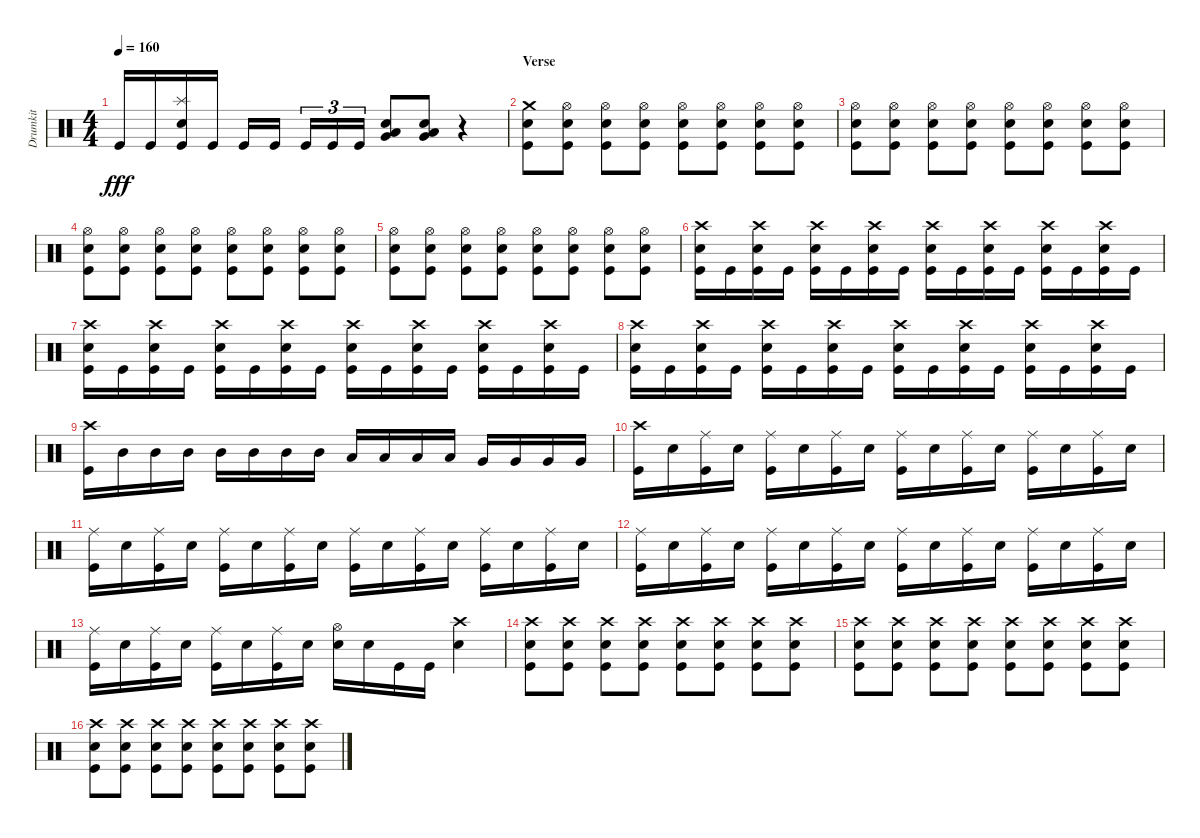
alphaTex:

\track ("Drumkit" "Drumkit") {instrument percussion}
\staff {score}
\articulation defaults
\ts (4 4)
\tempo 160
\clef neutral
\ks c "Kick (hit)".16{dy fff} "Kick (hit)".16
("Kick (hit)" "Splash (hit)" "Snare (hit) 2").16 "Kick (hit)".16 "Kick (hit)".16 "Kick (hit)".16 "Kick (hit)".16{tu (3 2)} "Kick (hit)".16{tu (3 2)} "Kick (hit)".16{tu (3 2)} ("Snare (hit) 2" "Low Floor Tom (hit)" "Very Low Tom (hit)").8 ("Snare (hit) 2" "Very Low Tom (hit)" "Low Floor Tom (hit)").8 r.4 |
\section ("" "Verse")
("Kick (hit)" "Crash medium (hit)" "Snare (hit) 2").8 ("Kick (hit)" "Snare (hit) 2" "Hi-Hat (open)").8 ("Kick (hit)" "Hi-Hat (open)" "Snare (hit) 2").8 ("Kick (hit)" "Snare (hit) 2" "Hi-Hat (open)").8 ("Kick (hit)" "Hi-Hat (open)" "Snare (hit) 2").8 ("Kick (hit)" "Snare (hit) 2" "Hi-Hat (open)").8 ("Kick (hit)" "Hi-Hat (open)" "Snare (hit) 2").8 ("Kick (hit)" "Snare (hit) 2" "Hi-Hat (open)").8 |
("Kick (hit)" "Snare (hit) 2" "Hi-Hat (open)").8 ("Kick (hit)" "Snare (hit) 2" "Hi-Hat (open)").8 ("Kick (hit)" "Hi-Hat (open)" "Snare (hit) 2").8 ("Kick (hit)" "Snare (hit) 2" "Hi-Hat (open)").8 ("Kick (hit)" "Hi-Hat (open)" "Snare (hit) 2").8 ("Kick (hit)" "Snare (hit) 2" "Hi-Hat (open)").8 ("Kick (hit)" "Hi-Hat (open)" "Snare (hit) 2").8 ("Kick (hit)" "Snare (hit) 2" "Hi-Hat (open)").8 |
("Kick (hit)" "Snare (hit) 2" "Hi-Hat (open)").8 ("Kick (hit)" "Snare (hit) 2" "Hi-Hat (open)").8 ("Kick (hit)" "Hi-Hat (open)" "Snare (hit) 2").8 ("Kick (hit)" "Snare (hit) 2" "Hi-Hat (open)").8 ("Kick (hit)" "Hi-Hat (open)" "Snare (hit) 2").8 ("Kick (hit)" "Snare (hit) 2" "Hi-Hat (open)").8 ("Kick (hit)" "Hi-Hat (open)" "Snare (hit) 2").8 ("Kick (hit)" "Snare (hit) 2" "Hi-Hat (open)").8 |
("Kick (hit)" "Snare (hit) 2" "Hi-Hat (open)").8 ("Kick (hit)" "Snare (hit) 2" "Hi-Hat (open)").8 ("Kick (hit)" "Hi-Hat (open)" "Snare (hit) 2").8 ("Kick (hit)" "Snare (hit) 2" "Hi-Hat (open)").8 ("Kick (hit)" "Hi-Hat (open)" "Snare (hit) 2").8 ("Kick (hit)" "Snare (hit) 2" "Hi-Hat (open)").8 ("Kick (hit)" "Hi-Hat (open)" "Snare (hit) 2").8 ("Kick (hit)" "Snare (hit) 2" "Hi-Hat (open)").8 |
\section ("" "")
("Kick (hit)" "Snare (hit) 2" "Crash high (hit)").16 "Kick (hit)".16 ("Kick (hit)" "Snare (hit) 2" "Crash high (hit)").16 "Kick (hit)".16 ("Kick (hit)" "Snare (hit) 2" "Crash high (hit)").16 "Kick (hit)".16 ("Kick (hit)" "Snare (hit) 2" "Crash high (hit)").16 "Kick (hit)".16 ("Kick (hit)" "Snare (hit) 2" "Crash high (hit)").16 "Kick (hit)".16 ("Kick (hit)" "Snare (hit) 2" "Crash high (hit)").16 "Kick (hit)".16 ("Kick (hit)" "Snare (hit) 2" "Crash high (hit)").16 "Kick (hit)".16 ("Kick (hit)" "Snare (hit) 2" "Crash high (hit)").16 "Kick (hit)".16 |
("Kick (hit)" "Snare (hit) 2" "Crash high (hit)").16 "Kick (hit)".16 ("Kick (hit)" "Snare (hit) 2" "Crash high (hit)").16 "Kick (hit)".16 ("Kick (hit)" "Snare (hit) 2" "Crash high (hit)").16 "Kick (hit)".16 ("Kick (hit)" "Snare (hit) 2" "Crash high (hit)").16 "Kick (hit)".16 ("Kick (hit)" "Snare (hit) 2" "Crash high (hit)").16 "Kick (hit)".16 ("Kick (hit)" "Snare (hit) 2" "Crash high (hit)").16 "Kick (hit)".16 ("Kick (hit)" "Snare (hit) 2" "Crash high (hit)").16 "Kick (hit)".16 ("Kick (hit)" "Snare (hit) 2" "Crash high (hit)").16 "Kick (hit)".16 |
("Kick (hit)" "Snare (hit) 2" "Crash high (hit)").16 "Kick (hit)".16 ("Kick (hit)" "Snare (hit) 2" "Crash high (hit)").16 "Kick (hit)".16 ("Kick (hit)" "Snare (hit) 2" "Crash high (hit)").16 "Kick (hit)".16 ("Kick (hit)" "Snare (hit) 2" "Crash high (hit)").16 "Kick (hit)".16 ("Kick (hit)" "Snare (hit) 2" "Crash high (hit)").16 "Kick (hit)".16 ("Kick (hit)" "Snare (hit) 2" "Crash high (hit)").16 "Kick (hit)".16 ("Kick (hit)" "Snare (hit) 2" "Crash high (hit)").16 "Kick (hit)".16 ("Kick (hit)" "Snare (hit) 2" "Crash high (hit)").16 "Kick (hit)".16 |
("Kick (hit)" "Crash high (hit)").16 "Mid Tom (hit)".16 "Mid Tom (hit)".16 "Mid Tom (hit)".16 "Mid Tom (hit)".16 "Mid Tom (hit)".16 "Mid Tom (hit)".16 "Mid Tom (hit)".16 "Low Tom (hit)".16 "Low Tom (hit)".16 "Low Tom (hit)".16 "Low Tom (hit)".16 "Very Low Tom (hit)".16 "Very Low Tom (hit)".16 "Very Low Tom (hit)".16 "Very Low Tom (hit)".16 |
\section ("" "")
("Kick (hit)" "Crash high (hit)").16 "Snare (hit) 2".16 ("Kick (hit)" "Ride (middle)").16 "Snare (hit) 2".16 ("Kick (hit)" "Ride (middle)").16 "Snare (hit) 2".16 ("Kick (hit)" "Ride (middle)").16 "Snare (hit) 2".16 ("Kick (hit)" "Ride (middle)").16 "Snare (hit) 2".16 ("Kick (hit)" "Ride (middle)").16 "Snare (hit) 2".16 ("Kick (hit)" "Ride (middle)").16 "Snare (hit) 2".16 ("Kick (hit)" "Ride (middle)").16 "Snare (hit) 2".16 |
("Kick (hit)" "Ride (middle)").16 "Snare (hit) 2".16 ("Kick (hit)" "Ride (middle)").16 "Snare (hit) 2".16 ("Kick (hit)" "Ride (middle)").16 "Snare (hit) 2".16 ("Kick (hit)" "Ride (middle)").16 "Snare (hit) 2".16 ("Kick (hit)" "Ride (middle)").16 "Snare (hit) 2".16 ("Kick (hit)" "Ride (middle)").16 "Snare (hit) 2".16 ("Kick (hit)" "Ride (middle)").16 "Snare (hit) 2".16 ("Kick (hit)" "Ride (middle)").16 "Snare (hit) 2".16 |
("Kick (hit)" "Ride (middle)").16 "Snare (hit) 2".16 ("Kick (hit)" "Ride (middle)").16 "Snare (hit) 2".16 ("Kick (hit)" "Ride (middle)").16 "Snare (hit) 2".16 ("Kick (hit)" "Ride (middle)").16 "Snare (hit) 2".16 ("Kick (hit)" "Ride (middle)").16 "Snare (hit) 2".16 ("Kick (hit)" "Ride (middle)").16 "Snare (hit) 2".16 ("Kick (hit)" "Ride (middle)").16 "Snare (hit) 2".16 ("Kick (hit)" "Ride (middle)").16 "Snare (hit) 2".16 |
("Kick (hit)" "Ride (middle)").16 "Snare (hit) 2".16 ("Kick (hit)" "Ride (middle)").16 "Snare (hit) 2".16 ("Kick (hit)" "Ride (middle)").16 "Snare (hit) 2".16 ("Kick (hit)" "Ride (middle)").16 "Snare (hit) 2".16 ("Snare (hit) 2" "Hi-Hat (open)").16 "Snare (hit) 2".16 "Kick (hit)".16 "Kick (hit)".16 ("Snare (hit) 2" "Crash high (hit)").4 |
("Kick (hit)" "Snare (hit) 2" "Crash high (hit)").8 ("Kick (hit)" "Snare (hit) 2" "Crash high (hit)").8 ("Kick (hit)" "Snare (hit) 2" "Crash high (hit)").8 ("Kick (hit)" "Snare (hit) 2" "Crash high (hit)").8 ("Kick (hit)" "Snare (hit) 2" "Crash high (hit)").8 ("Kick (hit)" "Snare (hit) 2" "Crash high (hit)").8 ("Kick (hit)" "Snare (hit) 2" "Crash high (hit)").8 ("Kick (hit)" "Snare (hit) 2" "Crash high (hit)").8 |
("Kick (hit)" "Snare (hit) 2" "Crash high (hit)").8 ("Kick (hit)" "Snare (hit) 2" "Crash high (hit)").8 ("Kick (hit)" "Snare (hit) 2" "Crash high (hit)").8 ("Kick (hit)" "Snare (hit) 2" "Crash high (hit)").8 ("Kick (hit)" "Snare (hit) 2" "Crash high (hit)").8 ("Kick (hit)" "Snare (hit) 2" "Crash high (hit)").8 ("Kick (hit)" "Snare (hit) 2" "Crash high (hit)").8 ("Kick (hit)" "Snare (hit) 2" "Crash high (hit)").8 |
("Kick (hit)" "Snare (hit) 2" "Crash high (hit)").8 ("Kick (hit)" "Snare (hit) 2" "Crash high (hit)").8 ("Kick (hit)" "Snare (hit) 2" "Crash high (hit)").8 ("Kick (hit)" "Snare (hit) 2" "Crash high (hit)").8 ("Kick (hit)" "Snare (hit) 2" "Crash high (hit)").8 ("Kick (hit)" "Snare (hit) 2" "Crash high (hit)").8 ("Kick (hit)" "Snare (hit) 2" "Crash high (hit)").8 ("Kick (hit)" "Snare (hit) 2" "Crash high (hit)").8
